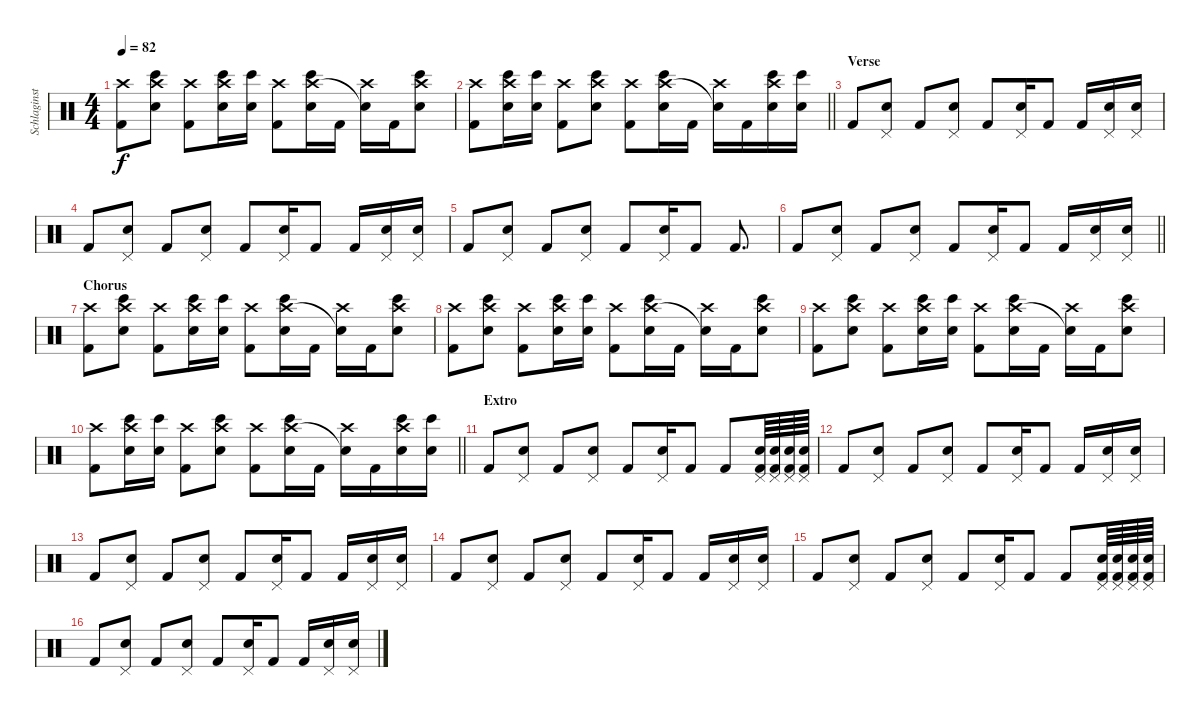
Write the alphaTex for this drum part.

\track ("Schlaginstrumente - Auswahl" "Schlaginst") {instrument percussion}
\staff {score}
\articulation defaults
\ts (4 4)
\tempo 82
\clef neutral
\ks c
("Crash high (hit)" "Kick (hit) 2").8{dy f} ("Bongo High (hit)" "Crash high (hit)" "Electric Snare (hit)").8 ("Crash high (hit)" "Kick (hit) 2").8 ("Bongo High (hit)" "Crash high (hit)" "Electric Snare (hit)").16 ("Bongo High (hit)" "Electric Snare (hit)").16 ("Crash high (hit)" "Kick (hit) 2").8 ("Bongo High (hit)" "Crash high (hit)" "Electric Snare (hit)").16 "Kick (hit) 2".16 ("Crash high (hit)" "Snare (hit)"{t}).16 "Kick (hit) 2".16 ("Bongo High (hit)" "Crash high (hit)" "Electric Snare (hit)").8 |
\barLineRight lightlight
("Crash high (hit)" "Kick (hit) 2").8 ("Bongo High (hit)" "Crash high (hit)" "Electric Snare (hit)").16 ("Bongo High (hit)" "Electric Snare (hit)").16 ("Crash high (hit)" "Kick (hit) 2").8 ("Bongo High (hit)" "Crash high (hit)" "Electric Snare (hit)").8 ("Crash high (hit)" "Kick (hit) 2").8 ("Bongo High (hit)" "Crash high (hit)" "Electric Snare (hit)").16 "Kick (hit) 2".16 ("Crash high (hit)" "Snare (hit)"{t}).16 "Kick (hit) 2".16 ("Bongo High (hit)" "Crash high (hit)" "Electric Snare (hit)").16 ("Bongo High (hit)" "Electric Snare (hit)").16 |
\section ("" "Verse")
"Kick (hit) 2".8 ("Pedal Hi-Hat (hit)" "Electric Snare (hit)").8 "Kick (hit) 2".8 ("Pedal Hi-Hat (hit)" "Electric Snare (hit)").8 "Kick (hit) 2".8 ("Pedal Hi-Hat (hit)" "Electric Snare (hit)").16 "Kick (hit) 2".8 "Kick (hit) 2".16 ("Pedal Hi-Hat (hit)" "Electric Snare (hit)").16 ("Pedal Hi-Hat (hit)" "Electric Snare (hit)").16 |
"Kick (hit) 2".8 ("Pedal Hi-Hat (hit)" "Electric Snare (hit)").8 "Kick (hit) 2".8 ("Pedal Hi-Hat (hit)" "Electric Snare (hit)").8 "Kick (hit) 2".8 ("Pedal Hi-Hat (hit)" "Electric Snare (hit)").16 "Kick (hit) 2".8 "Kick (hit) 2".16 ("Pedal Hi-Hat (hit)" "Electric Snare (hit)").16 ("Pedal Hi-Hat (hit)" "Electric Snare (hit)").16 |
"Kick (hit) 2".8 ("Pedal Hi-Hat (hit)" "Electric Snare (hit)").8 "Kick (hit) 2".8 ("Pedal Hi-Hat (hit)" "Electric Snare (hit)").8 "Kick (hit) 2".8 ("Pedal Hi-Hat (hit)" "Electric Snare (hit)").16 "Kick (hit) 2".8 "Kick (hit) 2".8{d} |
\barLineRight lightlight "Kick (hit) 2".8
("Pedal Hi-Hat (hit)" "Electric Snare (hit)").8 "Kick (hit) 2".8 ("Pedal Hi-Hat (hit)" "Electric Snare (hit)").8 "Kick (hit) 2".8 ("Pedal Hi-Hat (hit)" "Electric Snare (hit)").16 "Kick (hit) 2".8 "Kick (hit) 2".16 ("Pedal Hi-Hat (hit)" "Electric Snare (hit)").16 ("Pedal Hi-Hat (hit)" "Electric Snare (hit)").16 |
\section ("" "Chorus")
("Crash high (hit)" "Kick (hit) 2").8 ("Bongo High (hit)" "Crash high (hit)" "Electric Snare (hit)").8 ("Crash high (hit)" "Kick (hit) 2").8 ("Bongo High (hit)" "Crash high (hit)" "Electric Snare (hit)").16 ("Bongo High (hit)" "Electric Snare (hit)").16 ("Crash high (hit)" "Kick (hit) 2").8 ("Bongo High (hit)" "Crash high (hit)" "Electric Snare (hit)").16 "Kick (hit) 2".16 ("Crash high (hit)" "Snare (hit)"{t}).16 "Kick (hit) 2".16 ("Bongo High (hit)" "Crash high (hit)" "Electric Snare (hit)").8 |
("Crash high (hit)" "Kick (hit) 2").8 ("Bongo High (hit)" "Crash high (hit)" "Electric Snare (hit)").8 ("Crash high (hit)" "Kick (hit) 2").8 ("Bongo High (hit)" "Crash high (hit)" "Electric Snare (hit)").16 ("Bongo High (hit)" "Electric Snare (hit)").16 ("Crash high (hit)" "Kick (hit) 2").8 ("Bongo High (hit)" "Crash high (hit)" "Electric Snare (hit)").16 "Kick (hit) 2".16 ("Crash high (hit)" "Snare (hit)"{t}).16 "Kick (hit) 2".16 ("Bongo High (hit)" "Crash high (hit)" "Electric Snare (hit)").8 |
("Crash high (hit)" "Kick (hit) 2").8 ("Bongo High (hit)" "Crash high (hit)" "Electric Snare (hit)").8 ("Crash high (hit)" "Kick (hit) 2").8 ("Bongo High (hit)" "Crash high (hit)" "Electric Snare (hit)").16 ("Bongo High (hit)" "Electric Snare (hit)").16 ("Crash high (hit)" "Kick (hit) 2").8 ("Bongo High (hit)" "Crash high (hit)" "Electric Snare (hit)").16 "Kick (hit) 2".16 ("Crash high (hit)" "Snare (hit)"{t}).16 "Kick (hit) 2".16 ("Bongo High (hit)" "Crash high (hit)" "Electric Snare (hit)").8 |
\barLineRight lightlight
("Crash high (hit)" "Kick (hit) 2").8 ("Bongo High (hit)" "Crash high (hit)" "Electric Snare (hit)").16 ("Bongo High (hit)" "Electric Snare (hit)").16 ("Crash high (hit)" "Kick (hit) 2").8 ("Bongo High (hit)" "Crash high (hit)" "Electric Snare (hit)").8 ("Crash high (hit)" "Kick (hit) 2").8 ("Bongo High (hit)" "Crash high (hit)" "Electric Snare (hit)").16 "Kick (hit) 2".16 ("Crash high (hit)" "Snare (hit)"{t}).16 "Kick (hit) 2".16 ("Bongo High (hit)" "Crash high (hit)" "Electric Snare (hit)").16 ("Bongo High (hit)" "Electric Snare (hit)").16 |
\section ("" "Extro")
"Kick (hit) 2".8 ("Pedal Hi-Hat (hit)" "Electric Snare (hit)").8 "Kick (hit) 2".8 ("Pedal Hi-Hat (hit)" "Electric Snare (hit)").8 "Kick (hit) 2".8 ("Pedal Hi-Hat (hit)" "Electric Snare (hit)").16 "Kick (hit) 2".8 "Kick (hit) 2".8 ("Pedal Hi-Hat (hit)" "Electric Snare (hit)" "Kick (hit) 2").64 ("Pedal Hi-Hat (hit)" "Electric Snare (hit)" "Kick (hit) 2").64 ("Pedal Hi-Hat (hit)" "Electric Snare (hit)" "Kick (hit) 2").64 ("Pedal Hi-Hat (hit)" "Electric Snare (hit)" "Kick (hit) 2").64 |
"Kick (hit) 2".8 ("Pedal Hi-Hat (hit)" "Electric Snare (hit)").8 "Kick (hit) 2".8 ("Pedal Hi-Hat (hit)" "Electric Snare (hit)").8 "Kick (hit) 2".8 ("Pedal Hi-Hat (hit)" "Electric Snare (hit)").16 "Kick (hit) 2".8 "Kick (hit) 2".16 ("Pedal Hi-Hat (hit)" "Electric Snare (hit)").16 ("Pedal Hi-Hat (hit)" "Electric Snare (hit)").16 |
"Kick (hit) 2".8 ("Pedal Hi-Hat (hit)" "Electric Snare (hit)").8 "Kick (hit) 2".8 ("Pedal Hi-Hat (hit)" "Electric Snare (hit)").8 "Kick (hit) 2".8 ("Pedal Hi-Hat (hit)" "Electric Snare (hit)").16 "Kick (hit) 2".8 "Kick (hit) 2".16 ("Pedal Hi-Hat (hit)" "Electric Snare (hit)").16 ("Pedal Hi-Hat (hit)" "Electric Snare (hit)").16 |
"Kick (hit) 2".8 ("Pedal Hi-Hat (hit)" "Electric Snare (hit)").8 "Kick (hit) 2".8 ("Pedal Hi-Hat (hit)" "Electric Snare (hit)").8 "Kick (hit) 2".8 ("Pedal Hi-Hat (hit)" "Electric Snare (hit)").16 "Kick (hit) 2".8 "Kick (hit) 2".16 ("Pedal Hi-Hat (hit)" "Electric Snare (hit)").16 ("Pedal Hi-Hat (hit)" "Electric Snare (hit)").16 |
"Kick (hit) 2".8 ("Pedal Hi-Hat (hit)" "Electric Snare (hit)").8 "Kick (hit) 2".8 ("Pedal Hi-Hat (hit)" "Electric Snare (hit)").8 "Kick (hit) 2".8 ("Pedal Hi-Hat (hit)" "Electric Snare (hit)").16 "Kick (hit) 2".8 "Kick (hit) 2".8 ("Pedal Hi-Hat (hit)" "Electric Snare (hit)" "Kick (hit) 2").64 ("Pedal Hi-Hat (hit)" "Electric Snare (hit)" "Kick (hit) 2").64 ("Pedal Hi-Hat (hit)" "Electric Snare (hit)" "Kick (hit) 2").64 ("Pedal Hi-Hat (hit)" "Electric Snare (hit)" "Kick (hit) 2").64 |
"Kick (hit) 2".8 ("Pedal Hi-Hat (hit)" "Electric Snare (hit)").8 "Kick (hit) 2".8 ("Pedal Hi-Hat (hit)" "Electric Snare (hit)").8 "Kick (hit) 2".8 ("Pedal Hi-Hat (hit)" "Electric Snare (hit)").16 "Kick (hit) 2".8 "Kick (hit) 2".16 ("Pedal Hi-Hat (hit)" "Electric Snare (hit)").16 ("Pedal Hi-Hat (hit)" "Electric Snare (hit)").16
